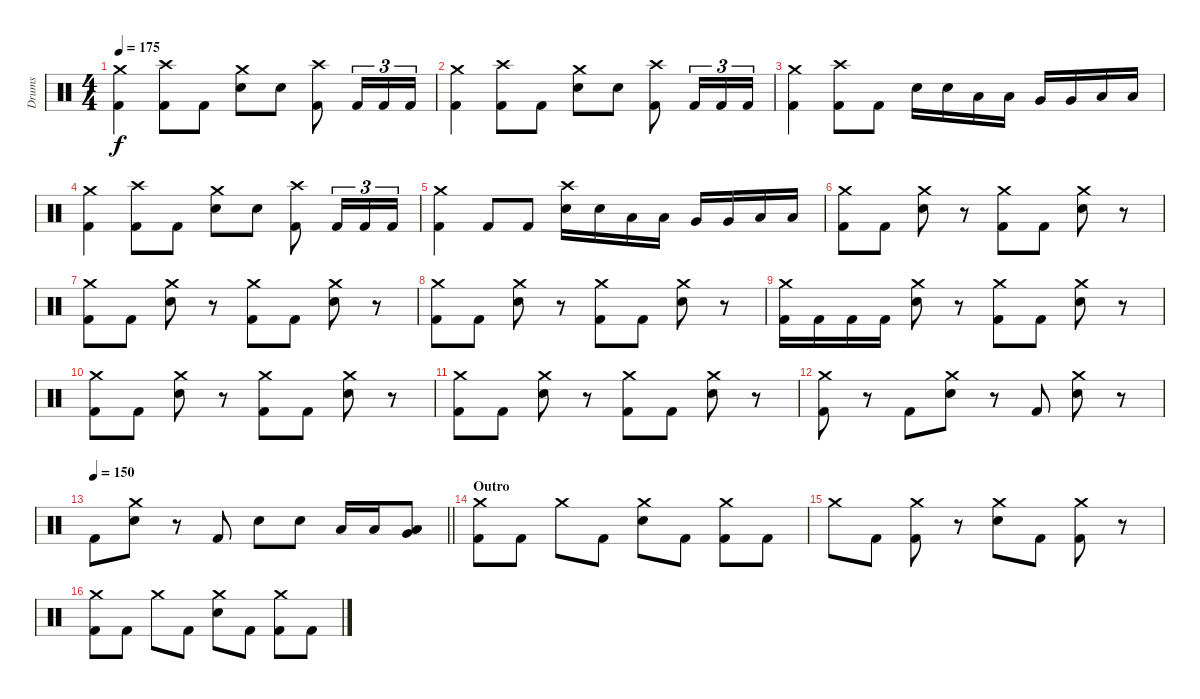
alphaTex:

\track ("Drums" "Drums") {instrument percussion}
\staff {score}
\articulation defaults
\ts (4 4)
\tempo 175
\clef neutral
\ks c
("Crash medium (hit)" "Kick (hit) 2").4{dy f} ("Crash high (hit)" "Kick (hit) 2").8 "Kick (hit) 2".8 ("Crash medium (hit)" "Electric Snare (hit)").8 "Electric Snare (hit)".8 ("Crash high (hit)" "Kick (hit) 2").8 "Kick (hit) 2".16{tu (3 2)} "Kick (hit) 2".16{tu (3 2)} "Kick (hit) 2".16{tu (3 2)} |
("Crash medium (hit)" "Kick (hit) 2").4 ("Crash high (hit)" "Kick (hit) 2").8 "Kick (hit) 2".8 ("Crash medium (hit)" "Electric Snare (hit)").8 "Electric Snare (hit)".8 ("Crash high (hit)" "Kick (hit) 2").8 "Kick (hit) 2".16{tu (3 2)} "Kick (hit) 2".16{tu (3 2)} "Kick (hit) 2".16{tu (3 2)} |
("Crash medium (hit)" "Kick (hit) 2").4 ("Crash high (hit)" "Kick (hit) 2").8 "Kick (hit) 2".8 "Electric Snare (hit)".16 "Electric Snare (hit)".16 "Low Tom (hit)".16 "Low Tom (hit)".16 "Very Low Tom (hit)".16 "Very Low Tom (hit)".16 "Low Floor Tom (hit)".16 "Low Floor Tom (hit)".16 |
("Crash medium (hit)" "Kick (hit) 2").4 ("Crash high (hit)" "Kick (hit) 2").8 "Kick (hit) 2".8 ("Crash medium (hit)" "Electric Snare (hit)").8 "Electric Snare (hit)".8 ("Crash high (hit)" "Kick (hit) 2").8 "Kick (hit) 2".16{tu (3 2)} "Kick (hit) 2".16{tu (3 2)} "Kick (hit) 2".16{tu (3 2)} |
("Crash medium (hit)" "Kick (hit) 2").4 "Kick (hit) 2".8 "Kick (hit) 2".8 ("Crash high (hit)" "Electric Snare (hit)").16 "Electric Snare (hit)".16 "Low Tom (hit)".16 "Low Tom (hit)".16 "Very Low Tom (hit)".16 "Very Low Tom (hit)".16 "Low Floor Tom (hit)".16 "Low Floor Tom (hit)".16 |
("Crash medium (hit)" "Kick (hit) 2").8 "Kick (hit) 2".8 ("Crash medium (hit)" "Electric Snare (hit)").8 r.8 ("Crash medium (hit)" "Kick (hit) 2").8 "Kick (hit) 2".8 ("Crash medium (hit)" "Electric Snare (hit)").8 r.8 |
("Crash medium (hit)" "Kick (hit) 2").8 "Kick (hit) 2".8 ("Crash medium (hit)" "Electric Snare (hit)").8 r.8 ("Crash medium (hit)" "Kick (hit) 2").8 "Kick (hit) 2".8 ("Crash medium (hit)" "Electric Snare (hit)").8 r.8 |
("Crash medium (hit)" "Kick (hit) 2").8 "Kick (hit) 2".8 ("Crash medium (hit)" "Electric Snare (hit)").8 r.8 ("Crash medium (hit)" "Kick (hit) 2").8 "Kick (hit) 2".8 ("Crash medium (hit)" "Electric Snare (hit)").8 r.8 |
("Crash medium (hit)" "Kick (hit) 2").16 "Kick (hit) 2".16 "Kick (hit) 2".16 "Kick (hit) 2".16 ("Crash medium (hit)" "Electric Snare (hit)").8 r.8 ("Crash medium (hit)" "Kick (hit) 2").8 "Kick (hit) 2".8 ("Crash medium (hit)" "Electric Snare (hit)").8 r.8 |
("Crash medium (hit)" "Kick (hit) 2").8 "Kick (hit) 2".8 ("Crash medium (hit)" "Electric Snare (hit)").8 r.8 ("Crash medium (hit)" "Kick (hit) 2").8 "Kick (hit) 2".8 ("Crash medium (hit)" "Electric Snare (hit)").8 r.8 |
("Crash medium (hit)" "Kick (hit) 2").8 "Kick (hit) 2".8 ("Crash medium (hit)" "Electric Snare (hit)").8 r.8 ("Crash medium (hit)" "Kick (hit) 2").8 "Kick (hit) 2".8 ("Crash medium (hit)" "Electric Snare (hit)").8 r.8 |
("Crash medium (hit)" "Kick (hit) 2").8 r.8 "Kick (hit) 2".8 ("Crash medium (hit)" "Electric Snare (hit)").8 r.8 "Kick (hit) 2".8 ("Crash medium (hit)" "Electric Snare (hit)").8 r.8 |
\tempo 150
\barLineRight lightlight "Kick (hit) 2".8
("Crash medium (hit)" "Electric Snare (hit)").8 r.8 "Kick (hit) 2".8 "Electric Snare (hit)".8 "Electric Snare (hit)".8 "Low Tom (hit)".16 "Low Tom (hit)".16 ("Very Low Tom (hit)" "Low Floor Tom (hit)").8 |
\section ("" "Outro")
("Crash medium (hit)" "Kick (hit) 2").8 "Kick (hit) 2".8 "Crash medium (hit)".8 "Kick (hit) 2".8 ("Crash medium (hit)" "Electric Snare (hit)").8 "Kick (hit) 2".8 ("Crash medium (hit)" "Kick (hit) 2").8 "Kick (hit) 2".8 |
"Crash medium (hit)".8 "Kick (hit) 2".8 ("Crash medium (hit)" "Kick (hit) 2").8 r.8 ("Crash medium (hit)" "Electric Snare (hit)").8 "Kick (hit) 2".8 ("Crash medium (hit)" "Kick (hit) 2").8 r.8 |
("Crash medium (hit)" "Kick (hit) 2").8 "Kick (hit) 2".8 "Crash medium (hit)".8 "Kick (hit) 2".8 ("Crash medium (hit)" "Electric Snare (hit)").8 "Kick (hit) 2".8 ("Crash medium (hit)" "Kick (hit) 2").8 "Kick (hit) 2".8
